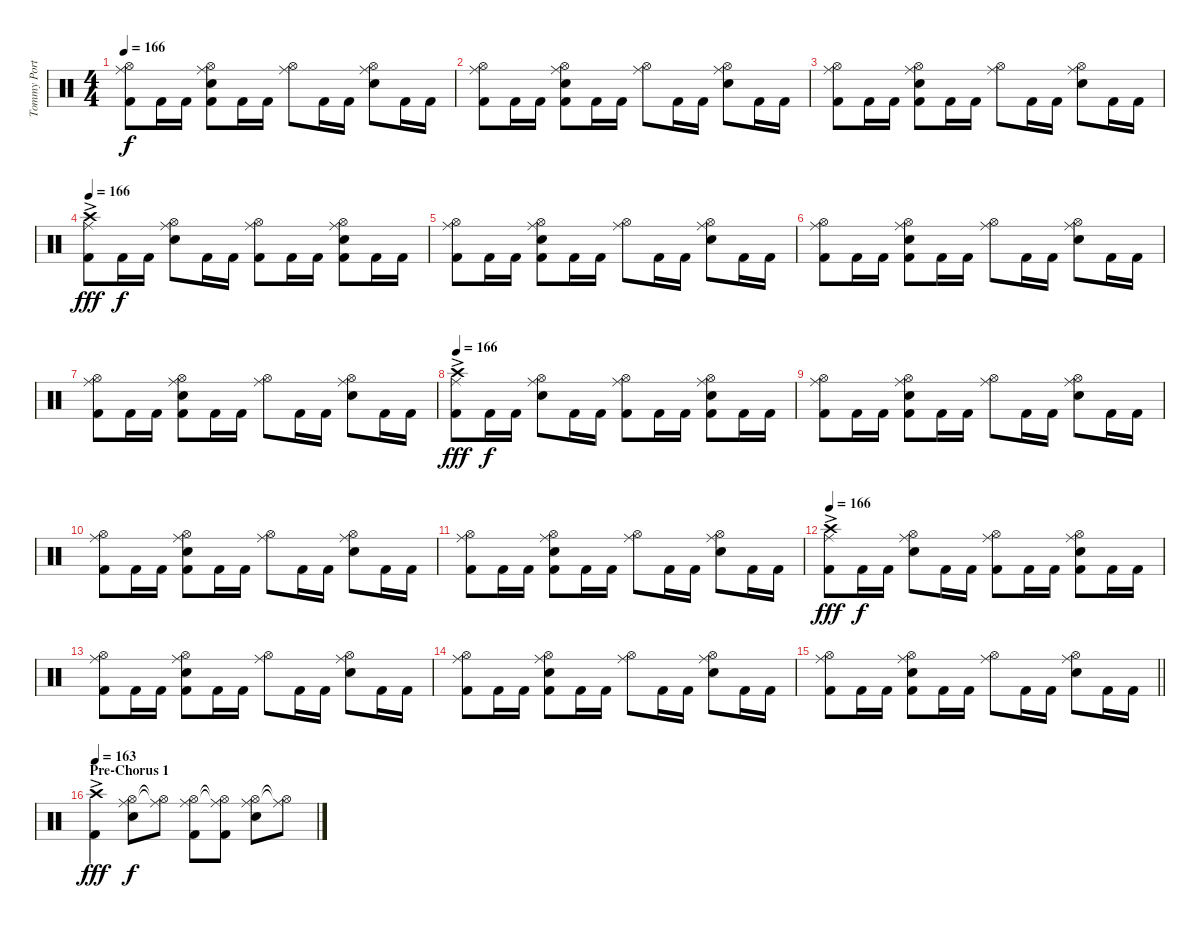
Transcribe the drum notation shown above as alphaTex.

\track ("Tommy Portimo" "Tommy Port") {instrument percussion}
\staff {score}
\articulation defaults
\ts (4 4)
\tempo 166
\clef neutral
\ks c
("Hi-Hat (open)" "Ride (middle)" "Kick (hit) 2").8{dy f} "Kick (hit) 2".16 "Kick (hit) 2".16 ("Hi-Hat (open)" "Ride (middle)" "Electric Snare (hit)" "Kick (hit) 2").8 "Kick (hit) 2".16 "Kick (hit) 2".16 ("Hi-Hat (open)" "Ride (middle)").8 "Kick (hit) 2".16 "Kick (hit) 2".16 ("Hi-Hat (open)" "Ride (middle)" "Electric Snare (hit)").8 "Kick (hit) 2".16 "Kick (hit) 2".16 |
("Hi-Hat (open)" "Ride (middle)" "Kick (hit) 2").8 "Kick (hit) 2".16 "Kick (hit) 2".16 ("Hi-Hat (open)" "Ride (middle)" "Electric Snare (hit)" "Kick (hit) 2").8 "Kick (hit) 2".16 "Kick (hit) 2".16 ("Hi-Hat (open)" "Ride (middle)").8 "Kick (hit) 2".16 "Kick (hit) 2".16 ("Hi-Hat (open)" "Ride (middle)" "Electric Snare (hit)").8 "Kick (hit) 2".16 "Kick (hit) 2".16 |
("Hi-Hat (open)" "Ride (middle)" "Kick (hit) 2").8 "Kick (hit) 2".16 "Kick (hit) 2".16 ("Hi-Hat (open)" "Ride (middle)" "Electric Snare (hit)" "Kick (hit) 2").8 "Kick (hit) 2".16 "Kick (hit) 2".16 ("Hi-Hat (open)" "Ride (middle)").8 "Kick (hit) 2".16 "Kick (hit) 2".16 ("Hi-Hat (open)" "Ride (middle)" "Electric Snare (hit)").8 "Kick (hit) 2".16 "Kick (hit) 2".16 |
\tempo 166
("Crash high (hit)"{ac} "Ride (middle)" "Kick (hit) 2").8{dy fff} "Kick (hit) 2".16{dy f} "Kick (hit) 2".16 ("Hi-Hat (open)" "Ride (middle)" "Electric Snare (hit)").8 "Kick (hit) 2".16 "Kick (hit) 2".16 ("Hi-Hat (open)" "Ride (middle)" "Kick (hit) 2").8 "Kick (hit) 2".16 "Kick (hit) 2".16 ("Hi-Hat (open)" "Ride (middle)" "Electric Snare (hit)" "Kick (hit) 2").8 "Kick (hit) 2".16 "Kick (hit) 2".16 |
("Hi-Hat (open)" "Ride (middle)" "Kick (hit) 2").8 "Kick (hit) 2".16 "Kick (hit) 2".16 ("Hi-Hat (open)" "Ride (middle)" "Electric Snare (hit)" "Kick (hit) 2").8 "Kick (hit) 2".16 "Kick (hit) 2".16 ("Hi-Hat (open)" "Ride (middle)").8 "Kick (hit) 2".16 "Kick (hit) 2".16 ("Hi-Hat (open)" "Ride (middle)" "Electric Snare (hit)").8 "Kick (hit) 2".16 "Kick (hit) 2".16 |
("Hi-Hat (open)" "Ride (middle)" "Kick (hit) 2").8 "Kick (hit) 2".16 "Kick (hit) 2".16 ("Hi-Hat (open)" "Ride (middle)" "Electric Snare (hit)" "Kick (hit) 2").8 "Kick (hit) 2".16 "Kick (hit) 2".16 ("Hi-Hat (open)" "Ride (middle)").8 "Kick (hit) 2".16 "Kick (hit) 2".16 ("Hi-Hat (open)" "Ride (middle)" "Electric Snare (hit)").8 "Kick (hit) 2".16 "Kick (hit) 2".16 |
("Hi-Hat (open)" "Ride (middle)" "Kick (hit) 2").8 "Kick (hit) 2".16 "Kick (hit) 2".16 ("Hi-Hat (open)" "Ride (middle)" "Electric Snare (hit)" "Kick (hit) 2").8 "Kick (hit) 2".16 "Kick (hit) 2".16 ("Hi-Hat (open)" "Ride (middle)").8 "Kick (hit) 2".16 "Kick (hit) 2".16 ("Hi-Hat (open)" "Ride (middle)" "Electric Snare (hit)").8 "Kick (hit) 2".16 "Kick (hit) 2".16 |
\tempo 163
\tempo 166
("Crash high (hit)"{ac} "Ride (middle)" "Kick (hit) 2").8{dy fff} "Kick (hit) 2".16{dy f} "Kick (hit) 2".16 ("Hi-Hat (open)" "Ride (middle)" "Electric Snare (hit)").8 "Kick (hit) 2".16 "Kick (hit) 2".16 ("Hi-Hat (open)" "Ride (middle)" "Kick (hit) 2").8 "Kick (hit) 2".16 "Kick (hit) 2".16 ("Hi-Hat (open)" "Ride (middle)" "Electric Snare (hit)" "Kick (hit) 2").8 "Kick (hit) 2".16 "Kick (hit) 2".16 |
("Hi-Hat (open)" "Ride (middle)" "Kick (hit) 2").8 "Kick (hit) 2".16 "Kick (hit) 2".16 ("Hi-Hat (open)" "Ride (middle)" "Electric Snare (hit)" "Kick (hit) 2").8 "Kick (hit) 2".16 "Kick (hit) 2".16 ("Hi-Hat (open)" "Ride (middle)").8 "Kick (hit) 2".16 "Kick (hit) 2".16 ("Hi-Hat (open)" "Ride (middle)" "Electric Snare (hit)").8 "Kick (hit) 2".16 "Kick (hit) 2".16 |
("Hi-Hat (open)" "Ride (middle)" "Kick (hit) 2").8 "Kick (hit) 2".16 "Kick (hit) 2".16 ("Hi-Hat (open)" "Ride (middle)" "Electric Snare (hit)" "Kick (hit) 2").8 "Kick (hit) 2".16 "Kick (hit) 2".16 ("Hi-Hat (open)" "Ride (middle)").8 "Kick (hit) 2".16 "Kick (hit) 2".16 ("Hi-Hat (open)" "Ride (middle)" "Electric Snare (hit)").8 "Kick (hit) 2".16 "Kick (hit) 2".16 |
("Hi-Hat (open)" "Ride (middle)" "Kick (hit) 2").8 "Kick (hit) 2".16 "Kick (hit) 2".16 ("Hi-Hat (open)" "Ride (middle)" "Electric Snare (hit)" "Kick (hit) 2").8 "Kick (hit) 2".16 "Kick (hit) 2".16 ("Hi-Hat (open)" "Ride (middle)").8 "Kick (hit) 2".16 "Kick (hit) 2".16 ("Hi-Hat (open)" "Ride (middle)" "Electric Snare (hit)").8 "Kick (hit) 2".16 "Kick (hit) 2".16 |
\tempo 166
("Crash high (hit)"{ac} "Ride (middle)" "Kick (hit) 2").8{dy fff} "Kick (hit) 2".16{dy f} "Kick (hit) 2".16 ("Hi-Hat (open)" "Ride (middle)" "Electric Snare (hit)").8 "Kick (hit) 2".16 "Kick (hit) 2".16 ("Hi-Hat (open)" "Ride (middle)" "Kick (hit) 2").8 "Kick (hit) 2".16 "Kick (hit) 2".16 ("Hi-Hat (open)" "Ride (middle)" "Electric Snare (hit)" "Kick (hit) 2").8 "Kick (hit) 2".16 "Kick (hit) 2".16 |
("Hi-Hat (open)" "Ride (middle)" "Kick (hit) 2").8 "Kick (hit) 2".16 "Kick (hit) 2".16 ("Hi-Hat (open)" "Ride (middle)" "Electric Snare (hit)" "Kick (hit) 2").8 "Kick (hit) 2".16 "Kick (hit) 2".16 ("Hi-Hat (open)" "Ride (middle)").8 "Kick (hit) 2".16 "Kick (hit) 2".16 ("Hi-Hat (open)" "Ride (middle)" "Electric Snare (hit)").8 "Kick (hit) 2".16 "Kick (hit) 2".16 |
("Hi-Hat (open)" "Ride (middle)" "Kick (hit) 2").8 "Kick (hit) 2".16 "Kick (hit) 2".16 ("Hi-Hat (open)" "Ride (middle)" "Electric Snare (hit)" "Kick (hit) 2").8 "Kick (hit) 2".16 "Kick (hit) 2".16 ("Hi-Hat (open)" "Ride (middle)").8 "Kick (hit) 2".16 "Kick (hit) 2".16 ("Hi-Hat (open)" "Ride (middle)" "Electric Snare (hit)").8 "Kick (hit) 2".16 "Kick (hit) 2".16 |
\barLineRight lightlight
("Hi-Hat (open)" "Ride (middle)" "Kick (hit) 2").8 "Kick (hit) 2".16 "Kick (hit) 2".16 ("Hi-Hat (open)" "Ride (middle)" "Electric Snare (hit)" "Kick (hit) 2").8 "Kick (hit) 2".16 "Kick (hit) 2".16 ("Hi-Hat (open)" "Ride (middle)").8 "Kick (hit) 2".16 "Kick (hit) 2".16 ("Hi-Hat (open)" "Ride (middle)" "Electric Snare (hit)").8 "Kick (hit) 2".16 "Kick (hit) 2".16 |
\section ("" "Pre-Chorus 1")
\tempo 163
("Crash high (hit)"{ac} "Kick (hit) 2").4{dy fff} ("Hi-Hat (open)" "Ride (middle)" "Electric Snare (hit)").8{dy f} ("Hi-Hat (open)"{t} "Ride (middle)"{t}).8 ("Hi-Hat (open)" "Ride (middle)" "Kick (hit) 2").8 ("Hi-Hat (open)"{t} "Ride (middle)"{t} "Kick (hit) 2").8 ("Hi-Hat (open)" "Ride (middle)" "Electric Snare (hit)").8 ("Hi-Hat (open)"{t} "Ride (middle)"{t}).8
